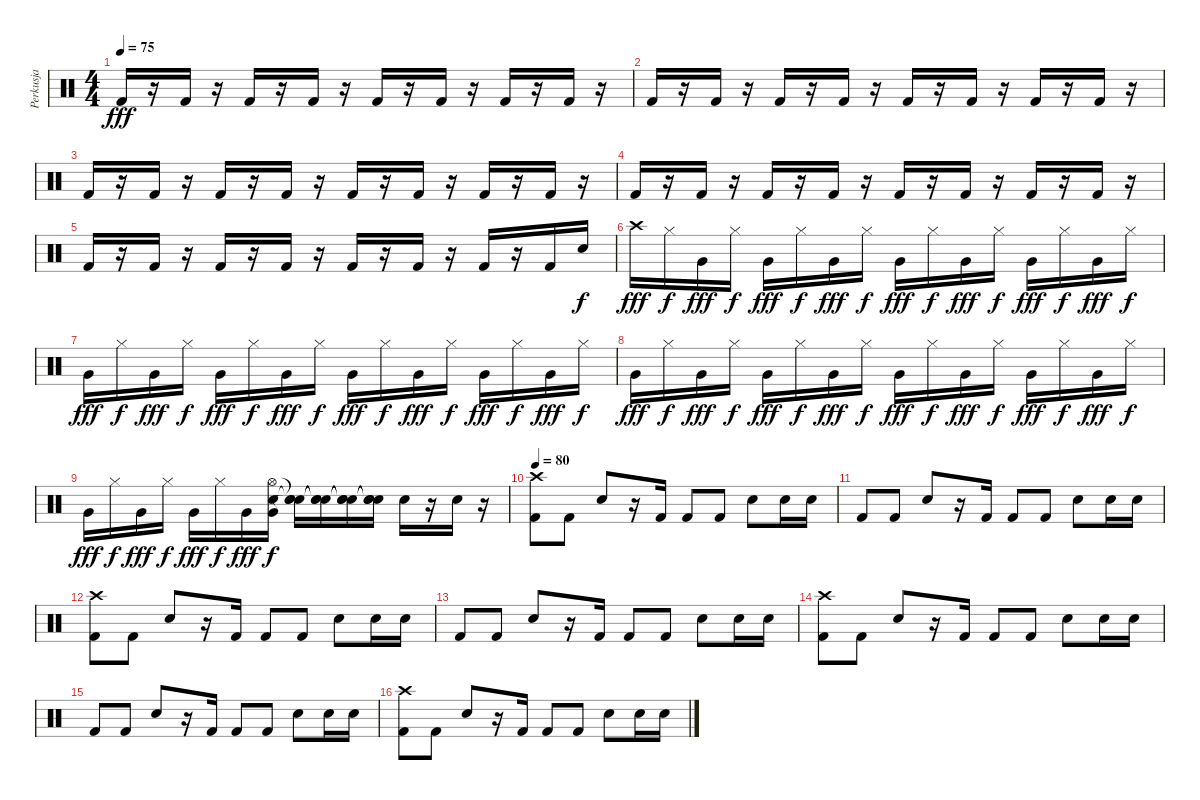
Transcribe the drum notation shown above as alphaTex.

\track ("Perkusja" "Perkusja") {instrument percussion}
\staff {score}
\articulation defaults
\ts (4 4)
\tempo 75
\clef neutral
\ks c "Kick (hit) 2".16{dy fff}
r.16 "Kick (hit) 2".16 r.16 "Kick (hit) 2".16 r.16 "Kick (hit) 2".16 r.16 "Kick (hit) 2".16 r.16 "Kick (hit) 2".16 r.16 "Kick (hit) 2".16 r.16 "Kick (hit) 2".16 r.16 |
"Kick (hit) 2".16 r.16 "Kick (hit) 2".16 r.16 "Kick (hit) 2".16 r.16 "Kick (hit) 2".16 r.16 "Kick (hit) 2".16 r.16 "Kick (hit) 2".16 r.16 "Kick (hit) 2".16 r.16 "Kick (hit) 2".16 r.16 |
"Kick (hit) 2".16 r.16 "Kick (hit) 2".16 r.16 "Kick (hit) 2".16 r.16 "Kick (hit) 2".16 r.16 "Kick (hit) 2".16 r.16 "Kick (hit) 2".16 r.16 "Kick (hit) 2".16 r.16 "Kick (hit) 2".16 r.16 |
"Kick (hit) 2".16 r.16 "Kick (hit) 2".16 r.16 "Kick (hit) 2".16 r.16 "Kick (hit) 2".16 r.16 "Kick (hit) 2".16 r.16 "Kick (hit) 2".16 r.16 "Kick (hit) 2".16 r.16 "Kick (hit) 2".16 r.16 |
"Kick (hit) 2".16 r.16 "Kick (hit) 2".16 r.16 "Kick (hit) 2".16 r.16 "Kick (hit) 2".16 r.16 "Kick (hit) 2".16 r.16 "Kick (hit) 2".16 r.16 "Kick (hit) 2".16 r.16 "Kick (hit) 2".16 "Electric Snare (hit)".16{dy f} |
"Crash high (hit)".16{dy fff} "Hi-Hat (closed)".16{dy f} "Very Low Tom (hit)".16{dy fff} "Hi-Hat (closed)".16{dy f} "Very Low Tom (hit)".16{dy fff} "Hi-Hat (closed)".16{dy f} "Very Low Tom (hit)".16{dy fff} "Hi-Hat (closed)".16{dy f} "Very Low Tom (hit)".16{dy fff} "Hi-Hat (closed)".16{dy f} "Very Low Tom (hit)".16{dy fff} "Hi-Hat (closed)".16{dy f} "Very Low Tom (hit)".16{dy fff} "Hi-Hat (closed)".16{dy f} "Very Low Tom (hit)".16{dy fff} "Hi-Hat (closed)".16{dy f} |
"Very Low Tom (hit)".16{dy fff} "Hi-Hat (closed)".16{dy f} "Very Low Tom (hit)".16{dy fff} "Hi-Hat (closed)".16{dy f} "Very Low Tom (hit)".16{dy fff} "Hi-Hat (closed)".16{dy f} "Very Low Tom (hit)".16{dy fff} "Hi-Hat (closed)".16{dy f} "Very Low Tom (hit)".16{dy fff} "Hi-Hat (closed)".16{dy f} "Very Low Tom (hit)".16{dy fff} "Hi-Hat (closed)".16{dy f} "Very Low Tom (hit)".16{dy fff} "Hi-Hat (closed)".16{dy f} "Very Low Tom (hit)".16{dy fff} "Hi-Hat (closed)".16{dy f} |
"Very Low Tom (hit)".16{dy fff} "Hi-Hat (closed)".16{dy f} "Very Low Tom (hit)".16{dy fff} "Hi-Hat (closed)".16{dy f} "Very Low Tom (hit)".16{dy fff} "Hi-Hat (closed)".16{dy f} "Very Low Tom (hit)".16{dy fff} "Hi-Hat (closed)".16{dy f} "Very Low Tom (hit)".16{dy fff} "Hi-Hat (closed)".16{dy f} "Very Low Tom (hit)".16{dy fff} "Hi-Hat (closed)".16{dy f} "Very Low Tom (hit)".16{dy fff} "Hi-Hat (closed)".16{dy f} "Very Low Tom (hit)".16{dy fff} "Hi-Hat (closed)".16{dy f} |
"Very Low Tom (hit)".16{dy fff} "Hi-Hat (closed)".16{dy f} "Very Low Tom (hit)".16{dy fff} "Hi-Hat (closed)".16{dy f} "Very Low Tom (hit)".16{dy fff} "Hi-Hat (closed)".16{dy f} "Very Low Tom (hit)".16{dy fff} ("Snare (hit) 2" "Very Low Tom (hit)" "Hi-Hat (open)").16{dy f} ("Snare (hit)"{t} "Snare (hit)"{t} "Snare (hit)"{t}).16 ("Snare (hit)"{t} "Snare (hit)"{t} "Snare (hit)"{t}).16 ("Snare (hit)"{t} "Snare (hit)"{t} "Snare (hit)"{t}).16 ("Snare (hit)"{t} "Snare (hit)"{t} "Snare (hit)"{t}).16 "Snare (hit) 2".16 r.16 "Snare (hit) 2".16 r.16 |
\tempo 80
("Crash high (hit)" "Kick (hit) 2").8 "Kick (hit) 2".8 "Electric Snare (hit)".8 r.16 "Kick (hit) 2".16 "Kick (hit) 2".8 "Kick (hit) 2".8 "Electric Snare (hit)".8 "Electric Snare (hit)".16 "Electric Snare (hit)".16 |
"Kick (hit) 2".8 "Kick (hit) 2".8 "Electric Snare (hit)".8 r.16 "Kick (hit) 2".16 "Kick (hit) 2".8 "Kick (hit) 2".8 "Electric Snare (hit)".8 "Electric Snare (hit)".16 "Electric Snare (hit)".16 |
("Crash high (hit)" "Kick (hit) 2").8 "Kick (hit) 2".8 "Electric Snare (hit)".8 r.16 "Kick (hit) 2".16 "Kick (hit) 2".8 "Kick (hit) 2".8 "Electric Snare (hit)".8 "Electric Snare (hit)".16 "Electric Snare (hit)".16 |
"Kick (hit) 2".8 "Kick (hit) 2".8 "Electric Snare (hit)".8 r.16 "Kick (hit) 2".16 "Kick (hit) 2".8 "Kick (hit) 2".8 "Electric Snare (hit)".8 "Electric Snare (hit)".16 "Electric Snare (hit)".16 |
("Crash high (hit)" "Kick (hit) 2").8 "Kick (hit) 2".8 "Electric Snare (hit)".8 r.16 "Kick (hit) 2".16 "Kick (hit) 2".8 "Kick (hit) 2".8 "Electric Snare (hit)".8 "Electric Snare (hit)".16 "Electric Snare (hit)".16 |
"Kick (hit) 2".8 "Kick (hit) 2".8 "Electric Snare (hit)".8 r.16 "Kick (hit) 2".16 "Kick (hit) 2".8 "Kick (hit) 2".8 "Electric Snare (hit)".8 "Electric Snare (hit)".16 "Electric Snare (hit)".16 |
("Crash high (hit)" "Kick (hit) 2").8 "Kick (hit) 2".8 "Electric Snare (hit)".8 r.16 "Kick (hit) 2".16 "Kick (hit) 2".8 "Kick (hit) 2".8 "Electric Snare (hit)".8 "Electric Snare (hit)".16 "Electric Snare (hit)".16
